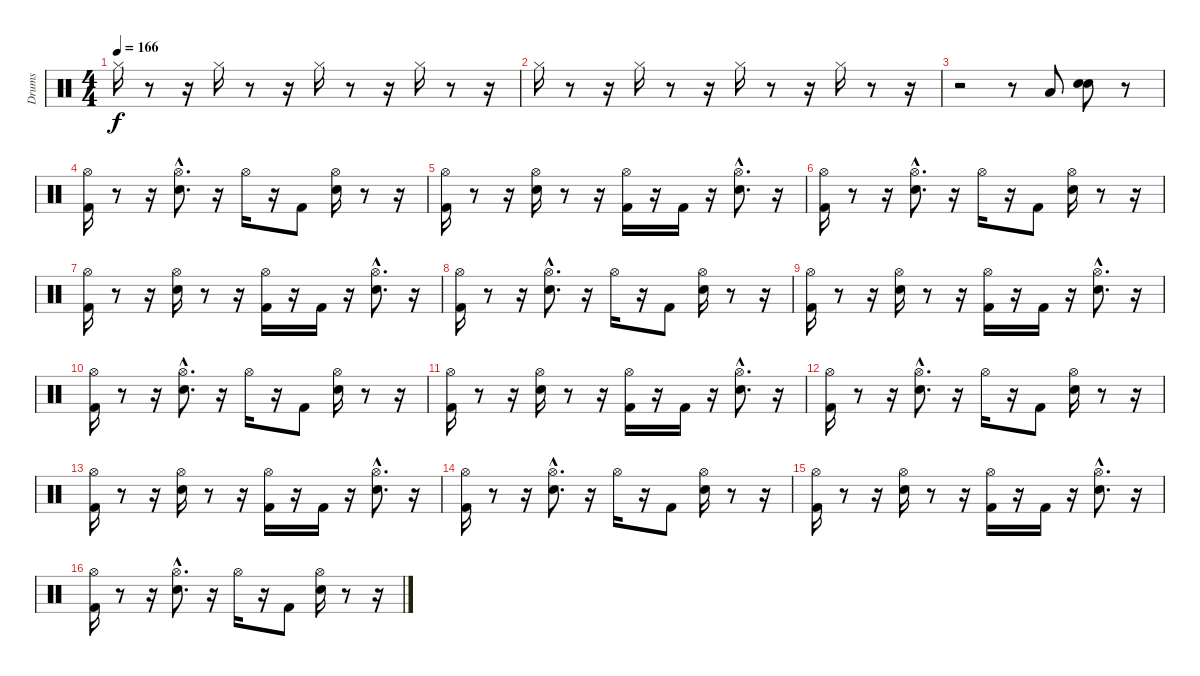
\track ("Drums" "Drums") {instrument percussion}
\staff {score}
\articulation defaults
\ts (4 4)
\tempo 166
\clef neutral
\ks c "Hi-Hat (closed)".16{dy f}
r.8 r.16 "Hi-Hat (closed)".16 r.8 r.16 "Hi-Hat (closed)".16 r.8 r.16 "Hi-Hat (closed)".16 r.8 r.16 |
"Hi-Hat (closed)".16 r.8 r.16 "Hi-Hat (closed)".16 r.8 r.16 "Hi-Hat (closed)".16 r.8 r.16 "Hi-Hat (closed)".16 r.8 r.16 |
r.2 r.8 "Low Floor Tom (hit)".8 ("Snare (hit)" "Snare (hit) 2").8 r.8 |
("Kick (hit) 2" "Hi-Hat (open)").16 r.8 r.16 ("Hi-Hat (open)"{hac} "Snare (hit) 2"{hac}).8{d} r.16 "Hi-Hat (open)".16 r.16 "Kick (hit) 2".8 ("Snare (hit) 2" "Hi-Hat (open)").16 r.8 r.16 |
("Kick (hit) 2" "Hi-Hat (open)").16 r.8 r.16 ("Snare (hit) 2" "Hi-Hat (open)").16 r.8 r.16 ("Kick (hit) 2" "Hi-Hat (open)").16 r.16 "Kick (hit) 2".16 r.16 ("Snare (hit) 2"{hac} "Hi-Hat (open)"{hac}).8{d} r.16 |
("Kick (hit) 2" "Hi-Hat (open)").16 r.8 r.16 ("Hi-Hat (open)"{hac} "Snare (hit) 2"{hac}).8{d} r.16 "Hi-Hat (open)".16 r.16 "Kick (hit) 2".8 ("Snare (hit) 2" "Hi-Hat (open)").16 r.8 r.16 |
("Kick (hit) 2" "Hi-Hat (open)").16 r.8 r.16 ("Snare (hit) 2" "Hi-Hat (open)").16 r.8 r.16 ("Kick (hit) 2" "Hi-Hat (open)").16 r.16 "Kick (hit) 2".16 r.16 ("Snare (hit) 2"{hac} "Hi-Hat (open)"{hac}).8{d} r.16 |
("Kick (hit) 2" "Hi-Hat (open)").16 r.8 r.16 ("Hi-Hat (open)"{hac} "Snare (hit) 2"{hac}).8{d} r.16 "Hi-Hat (open)".16 r.16 "Kick (hit) 2".8 ("Snare (hit) 2" "Hi-Hat (open)").16 r.8 r.16 |
("Kick (hit) 2" "Hi-Hat (open)").16 r.8 r.16 ("Snare (hit) 2" "Hi-Hat (open)").16 r.8 r.16 ("Kick (hit) 2" "Hi-Hat (open)").16 r.16 "Kick (hit) 2".16 r.16 ("Snare (hit) 2"{hac} "Hi-Hat (open)"{hac}).8{d} r.16 |
("Kick (hit) 2" "Hi-Hat (open)").16 r.8 r.16 ("Hi-Hat (open)"{hac} "Snare (hit) 2"{hac}).8{d} r.16 "Hi-Hat (open)".16 r.16 "Kick (hit) 2".8 ("Snare (hit) 2" "Hi-Hat (open)").16 r.8 r.16 |
("Kick (hit) 2" "Hi-Hat (open)").16 r.8 r.16 ("Snare (hit) 2" "Hi-Hat (open)").16 r.8 r.16 ("Kick (hit) 2" "Hi-Hat (open)").16 r.16 "Kick (hit) 2".16 r.16 ("Snare (hit) 2"{hac} "Hi-Hat (open)"{hac}).8{d} r.16 |
("Kick (hit) 2" "Hi-Hat (open)").16 r.8 r.16 ("Hi-Hat (open)"{hac} "Snare (hit) 2"{hac}).8{d} r.16 "Hi-Hat (open)".16 r.16 "Kick (hit) 2".8 ("Snare (hit) 2" "Hi-Hat (open)").16 r.8 r.16 |
("Kick (hit) 2" "Hi-Hat (open)").16 r.8 r.16 ("Snare (hit) 2" "Hi-Hat (open)").16 r.8 r.16 ("Kick (hit) 2" "Hi-Hat (open)").16 r.16 "Kick (hit) 2".16 r.16 ("Snare (hit) 2"{hac} "Hi-Hat (open)"{hac}).8{d} r.16 |
("Kick (hit) 2" "Hi-Hat (open)").16 r.8 r.16 ("Hi-Hat (open)"{hac} "Snare (hit) 2"{hac}).8{d} r.16 "Hi-Hat (open)".16 r.16 "Kick (hit) 2".8 ("Snare (hit) 2" "Hi-Hat (open)").16 r.8 r.16 |
("Kick (hit) 2" "Hi-Hat (open)").16 r.8 r.16 ("Snare (hit) 2" "Hi-Hat (open)").16 r.8 r.16 ("Kick (hit) 2" "Hi-Hat (open)").16 r.16 "Kick (hit) 2".16 r.16 ("Snare (hit) 2"{hac} "Hi-Hat (open)"{hac}).8{d} r.16 |
("Kick (hit) 2" "Hi-Hat (open)").16 r.8 r.16 ("Hi-Hat (open)"{hac} "Snare (hit) 2"{hac}).8{d} r.16 "Hi-Hat (open)".16 r.16 "Kick (hit) 2".8 ("Snare (hit) 2" "Hi-Hat (open)").16 r.8 r.16
